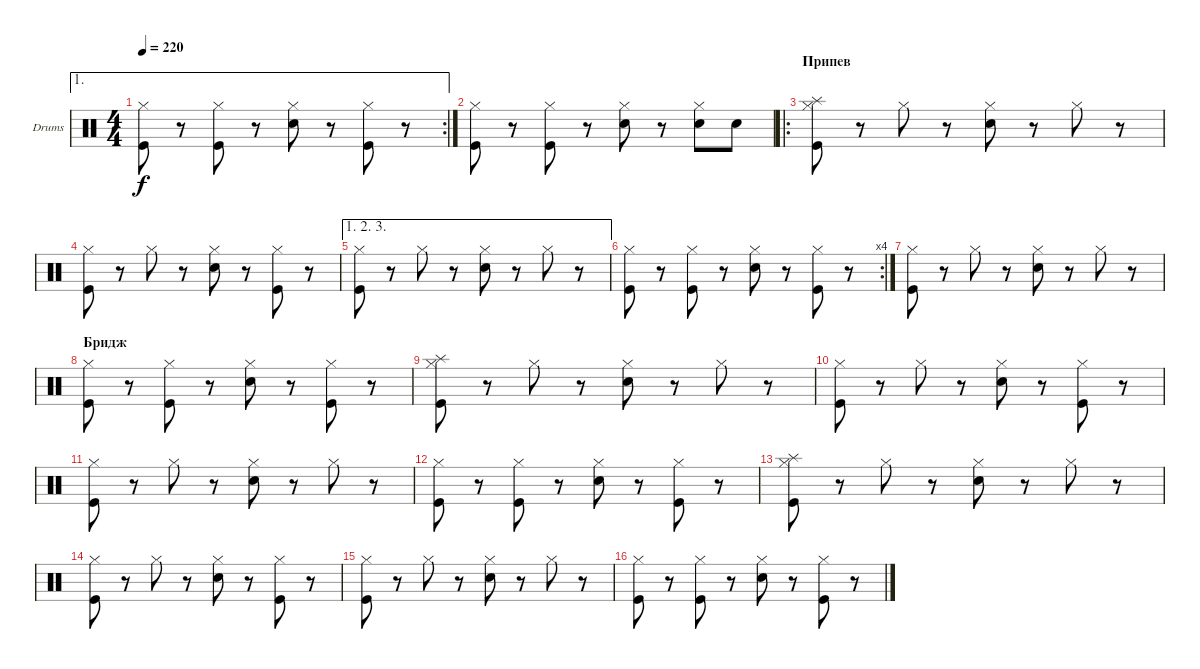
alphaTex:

\bracketExtendMode groupsimilarinstruments
\firstSystemTrackNameOrientation horizontal
\otherSystemsTrackNameOrientation horizontal
\track ("Ударные" "Drums") {instrument percussion}
\staff {score}
\articulation defaults
\ae 1
\rc 2
\ts (4 4)
\tempo 220
\clef neutral
\ks c
("Hi-Hat (closed)" "Kick (hit)").8{dy f} r.8 ("Hi-Hat (closed)" "Kick (hit)").8 r.8 ("Hi-Hat (closed)" "Snare (hit) 2").8 r.8 ("Hi-Hat (closed)" "Kick (hit)").8 r.8 |
("Hi-Hat (closed)" "Kick (hit)").8 r.8 ("Hi-Hat (closed)" "Kick (hit)").8 r.8 ("Hi-Hat (closed)" "Snare (hit) 2").8 r.8 ("Hi-Hat (closed)" "Snare (hit) 2").8 "Snare (hit) 2".8 |
\ro
\section ("" "Припев")
("Hi-Hat (closed)" "Splash (hit)" "Kick (hit)").8 r.8 "Hi-Hat (closed)".8 r.8 ("Hi-Hat (closed)" "Snare (hit) 2").8 r.8 "Hi-Hat (closed)".8 r.8 |
("Hi-Hat (closed)" "Kick (hit)").8 r.8 "Hi-Hat (closed)".8 r.8 ("Hi-Hat (closed)" "Snare (hit) 2").8 r.8 ("Hi-Hat (closed)" "Kick (hit)").8 r.8 |
\ae (1 2 3)
("Hi-Hat (closed)" "Kick (hit)").8 r.8 "Hi-Hat (closed)".8 r.8 ("Hi-Hat (closed)" "Snare (hit) 2").8 r.8 "Hi-Hat (closed)".8 r.8 |
\rc 4
("Hi-Hat (closed)" "Kick (hit)").8 r.8 ("Hi-Hat (closed)" "Kick (hit)").8 r.8 ("Hi-Hat (closed)" "Snare (hit) 2").8 r.8 ("Hi-Hat (closed)" "Kick (hit)").8 r.8 |
("Hi-Hat (closed)" "Kick (hit)").8 r.8 "Hi-Hat (closed)".8 r.8 ("Hi-Hat (closed)" "Snare (hit) 2").8 r.8 "Hi-Hat (closed)".8 r.8 |
\section ("" "Бридж")
("Hi-Hat (closed)" "Kick (hit)").8 r.8 ("Hi-Hat (closed)" "Kick (hit)").8 r.8 ("Hi-Hat (closed)" "Snare (hit) 2").8 r.8 ("Hi-Hat (closed)" "Kick (hit)").8 r.8 |
("Hi-Hat (closed)" "Splash (hit)" "Kick (hit)").8 r.8 "Hi-Hat (closed)".8 r.8 ("Hi-Hat (closed)" "Snare (hit) 2").8 r.8 "Hi-Hat (closed)".8 r.8 |
("Hi-Hat (closed)" "Kick (hit)").8 r.8 "Hi-Hat (closed)".8 r.8 ("Hi-Hat (closed)" "Snare (hit) 2").8 r.8 ("Hi-Hat (closed)" "Kick (hit)").8 r.8 |
("Hi-Hat (closed)" "Kick (hit)").8 r.8 "Hi-Hat (closed)".8 r.8 ("Hi-Hat (closed)" "Snare (hit) 2").8 r.8 "Hi-Hat (closed)".8 r.8 |
("Hi-Hat (closed)" "Kick (hit)").8 r.8 ("Hi-Hat (closed)" "Kick (hit)").8 r.8 ("Hi-Hat (closed)" "Snare (hit) 2").8 r.8 ("Hi-Hat (closed)" "Kick (hit)").8 r.8 |
("Hi-Hat (closed)" "Splash (hit)" "Kick (hit)").8 r.8 "Hi-Hat (closed)".8 r.8 ("Hi-Hat (closed)" "Snare (hit) 2").8 r.8 "Hi-Hat (closed)".8 r.8 |
("Hi-Hat (closed)" "Kick (hit)").8 r.8 "Hi-Hat (closed)".8 r.8 ("Hi-Hat (closed)" "Snare (hit) 2").8 r.8 ("Hi-Hat (closed)" "Kick (hit)").8 r.8 |
("Hi-Hat (closed)" "Kick (hit)").8 r.8 "Hi-Hat (closed)".8 r.8 ("Hi-Hat (closed)" "Snare (hit) 2").8 r.8 "Hi-Hat (closed)".8 r.8 |
("Hi-Hat (closed)" "Kick (hit)").8 r.8 ("Hi-Hat (closed)" "Kick (hit)").8 r.8 ("Hi-Hat (closed)" "Snare (hit) 2").8 r.8 ("Hi-Hat (closed)" "Kick (hit)").8 r.8
